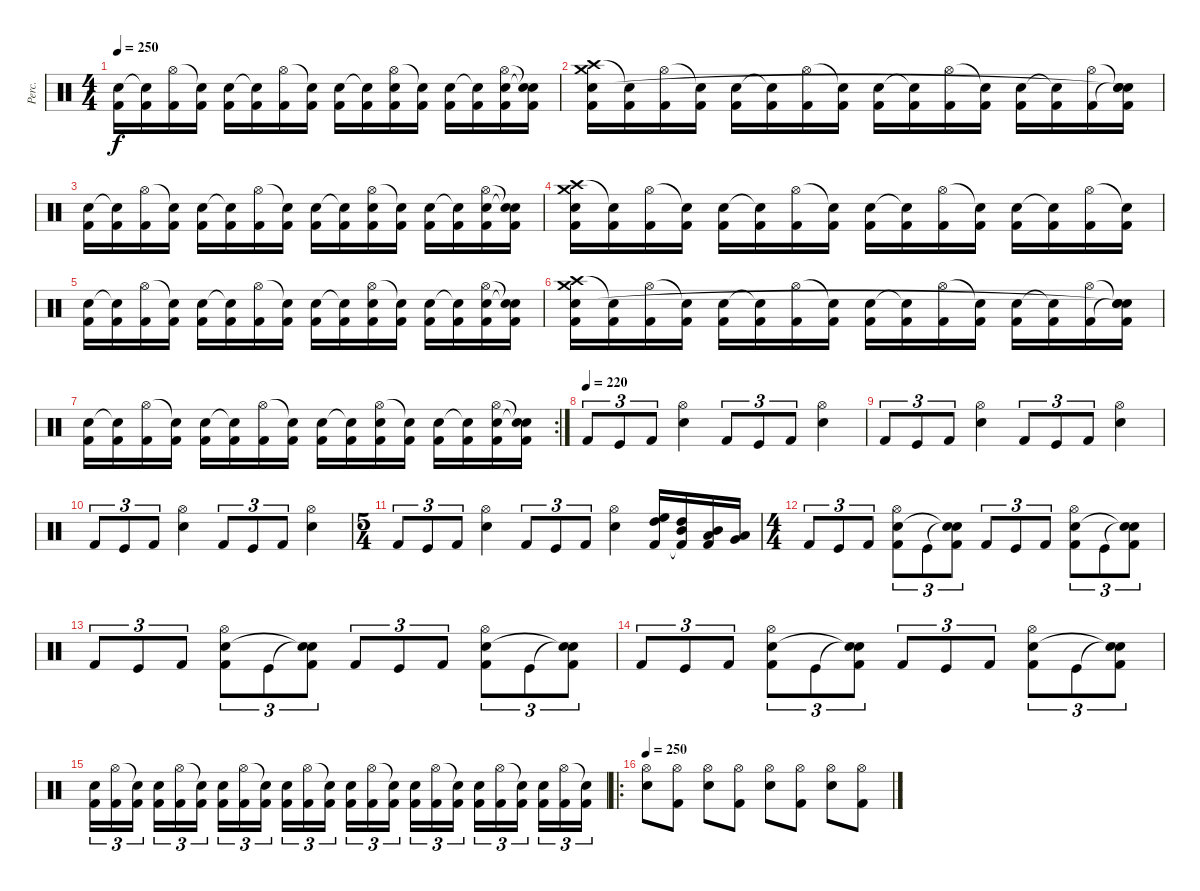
\track ("Perc." "Perc.") {instrument percussion}
\staff {score}
\articulation defaults
\ts (4 4)
\tempo 250
\clef neutral
\ks c
("Snare (hit) 2" "Kick (hit) 2").16{dy f} ("Snare (hit)"{t} "Kick (hit) 2").16 ("Hi-Hat (open)" "Kick (hit) 2").16 ("Snare (hit)"{t} "Kick (hit) 2").16 ("Snare (hit) 2" "Kick (hit) 2").16 ("Snare (hit)"{t} "Kick (hit) 2").16 ("Hi-Hat (open)" "Kick (hit) 2").16 ("Snare (hit)"{t} "Kick (hit) 2").16 ("Snare (hit) 2" "Kick (hit) 2").16 ("Snare (hit)"{t} "Kick (hit) 2").16 ("Hi-Hat (open)" "Snare (hit) 2" "Kick (hit) 2").16 ("Snare (hit)"{t} "Kick (hit) 2").16 ("Snare (hit) 2" "Kick (hit) 2").16 ("Snare (hit)"{t} "Kick (hit) 2").16 ("Hi-Hat (open)" "Snare (hit) 2" "Kick (hit) 2").16 ("Snare (hit)"{t} "Snare (hit)"{t} "Kick (hit) 2").16 |
("Crash high (hit)" "Crash medium (hit)" "Snare (hit) 2" "Kick (hit) 2").16 ("Snare (hit)"{t} "Kick (hit) 2").16 ("Hi-Hat (open)" "Kick (hit) 2").16 ("Snare (hit)"{t} "Kick (hit) 2").16 ("Snare (hit) 2" "Kick (hit) 2").16 ("Snare (hit)"{t} "Kick (hit) 2").16 ("Hi-Hat (open)" "Kick (hit) 2").16 ("Snare (hit)"{t} "Kick (hit) 2").16 ("Snare (hit) 2" "Kick (hit) 2").16 ("Snare (hit)"{t} "Kick (hit) 2").16 ("Hi-Hat (open)" "Kick (hit) 2").16 ("Snare (hit)"{t} "Kick (hit) 2").16 ("Snare (hit) 2" "Kick (hit) 2").16 ("Snare (hit)"{t} "Kick (hit) 2").16 ("Hi-Hat (open)" "Kick (hit) 2").16 ("Snare (hit)"{t} "Snare (hit)"{t} "Snare (hit)"{t} "Kick (hit) 2").16 |
("Snare (hit) 2" "Kick (hit) 2").16 ("Snare (hit)"{t} "Kick (hit) 2").16 ("Hi-Hat (open)" "Kick (hit) 2").16 ("Snare (hit)"{t} "Kick (hit) 2").16 ("Snare (hit) 2" "Kick (hit) 2").16 ("Snare (hit)"{t} "Kick (hit) 2").16 ("Hi-Hat (open)" "Kick (hit) 2").16 ("Snare (hit)"{t} "Kick (hit) 2").16 ("Snare (hit) 2" "Kick (hit) 2").16 ("Snare (hit)"{t} "Kick (hit) 2").16 ("Hi-Hat (open)" "Snare (hit) 2" "Kick (hit) 2").16 ("Snare (hit)"{t} "Kick (hit) 2").16 ("Snare (hit) 2" "Kick (hit) 2").16 ("Snare (hit)"{t} "Kick (hit) 2").16 ("Hi-Hat (open)" "Snare (hit) 2" "Kick (hit) 2").16 ("Snare (hit)"{t} "Snare (hit)"{t} "Kick (hit) 2").16 |
("Crash high (hit)" "Crash medium (hit)" "Snare (hit) 2" "Kick (hit) 2").16 ("Snare (hit)"{t} "Kick (hit) 2").16 ("Hi-Hat (open)" "Kick (hit) 2").16 ("Snare (hit)"{t} "Kick (hit) 2").16 ("Snare (hit) 2" "Kick (hit) 2").16 ("Snare (hit)"{t} "Kick (hit) 2").16 ("Hi-Hat (open)" "Kick (hit) 2").16 ("Snare (hit)"{t} "Kick (hit) 2").16 ("Snare (hit) 2" "Kick (hit) 2").16 ("Snare (hit)"{t} "Kick (hit) 2").16 ("Hi-Hat (open)" "Kick (hit) 2").16 ("Snare (hit)"{t} "Kick (hit) 2").16 ("Snare (hit) 2" "Kick (hit) 2").16 ("Snare (hit)"{t} "Kick (hit) 2").16 ("Hi-Hat (open)" "Kick (hit) 2").16 ("Snare (hit)"{t} "Kick (hit) 2").16 |
("Snare (hit) 2" "Kick (hit) 2").16 ("Snare (hit)"{t} "Kick (hit) 2").16 ("Hi-Hat (open)" "Kick (hit) 2").16 ("Snare (hit)"{t} "Kick (hit) 2").16 ("Snare (hit) 2" "Kick (hit) 2").16 ("Snare (hit)"{t} "Kick (hit) 2").16 ("Hi-Hat (open)" "Kick (hit) 2").16 ("Snare (hit)"{t} "Kick (hit) 2").16 ("Snare (hit) 2" "Kick (hit) 2").16 ("Snare (hit)"{t} "Kick (hit) 2").16 ("Hi-Hat (open)" "Snare (hit) 2" "Kick (hit) 2").16 ("Snare (hit)"{t} "Kick (hit) 2").16 ("Snare (hit) 2" "Kick (hit) 2").16 ("Snare (hit)"{t} "Kick (hit) 2").16 ("Hi-Hat (open)" "Snare (hit) 2" "Kick (hit) 2").16 ("Snare (hit)"{t} "Snare (hit)"{t} "Kick (hit) 2").16 |
("Crash high (hit)" "Crash medium (hit)" "Snare (hit) 2" "Kick (hit) 2").16 ("Snare (hit)"{t} "Kick (hit) 2").16 ("Hi-Hat (open)" "Kick (hit) 2").16 ("Snare (hit)"{t} "Kick (hit) 2").16 ("Snare (hit) 2" "Kick (hit) 2").16 ("Snare (hit)"{t} "Kick (hit) 2").16 ("Hi-Hat (open)" "Kick (hit) 2").16 ("Snare (hit)"{t} "Kick (hit) 2").16 ("Snare (hit) 2" "Kick (hit) 2").16 ("Snare (hit)"{t} "Kick (hit) 2").16 ("Hi-Hat (open)" "Kick (hit) 2").16 ("Snare (hit)"{t} "Kick (hit) 2").16 ("Snare (hit) 2" "Kick (hit) 2").16 ("Snare (hit)"{t} "Kick (hit) 2").16 ("Hi-Hat (open)" "Kick (hit) 2").16 ("Snare (hit)"{t} "Snare (hit)"{t} "Snare (hit)"{t} "Kick (hit) 2").16 |
\rc 2
("Snare (hit) 2" "Kick (hit) 2").16 ("Snare (hit)"{t} "Kick (hit) 2").16 ("Hi-Hat (open)" "Kick (hit) 2").16 ("Snare (hit)"{t} "Kick (hit) 2").16 ("Snare (hit) 2" "Kick (hit) 2").16 ("Snare (hit)"{t} "Kick (hit) 2").16 ("Hi-Hat (open)" "Kick (hit) 2").16 ("Snare (hit)"{t} "Kick (hit) 2").16 ("Snare (hit) 2" "Kick (hit) 2").16 ("Snare (hit)"{t} "Kick (hit) 2").16 ("Hi-Hat (open)" "Snare (hit) 2" "Kick (hit) 2").16 ("Snare (hit)"{t} "Kick (hit) 2").16 ("Snare (hit) 2" "Kick (hit) 2").16 ("Snare (hit)"{t} "Kick (hit) 2").16 ("Hi-Hat (open)" "Snare (hit) 2" "Kick (hit) 2").16 ("Snare (hit)"{t} "Snare (hit)"{t} "Kick (hit) 2").16 |
\tempo (220)
"Kick (hit) 2".8{tu (3 2)} "Kick (hit)".8{tu (3 2)} "Kick (hit) 2".8{tu (3 2)} ("Hi-Hat (open)" "Snare (hit) 2").4 "Kick (hit) 2".8{tu (3 2)} "Kick (hit)".8{tu (3 2)} "Kick (hit) 2".8{tu (3 2)} ("Hi-Hat (open)" "Snare (hit) 2").4 |
"Kick (hit) 2".8{tu (3 2)} "Kick (hit)".8{tu (3 2)} "Kick (hit) 2".8{tu (3 2)} ("Hi-Hat (open)" "Snare (hit) 2").4 "Kick (hit) 2".8{tu (3 2)} "Kick (hit)".8{tu (3 2)} "Kick (hit) 2".8{tu (3 2)} ("Hi-Hat (open)" "Snare (hit) 2").4 |
"Kick (hit) 2".8{tu (3 2)} "Kick (hit)".8{tu (3 2)} "Kick (hit) 2".8{tu (3 2)} ("Hi-Hat (open)" "Snare (hit) 2").4 "Kick (hit) 2".8{tu (3 2)} "Kick (hit)".8{tu (3 2)} "Kick (hit) 2".8{tu (3 2)} ("Hi-Hat (open)" "Snare (hit) 2").4 |
\ts (5 4)
"Kick (hit) 2".8{tu (3 2)} "Kick (hit)".8{tu (3 2)} "Kick (hit) 2".8{tu (3 2)} ("Hi-Hat (open)" "Snare (hit) 2").4 "Kick (hit) 2".8{tu (3 2)} "Kick (hit)".8{tu (3 2)} "Kick (hit) 2".8{tu (3 2)} ("Hi-Hat (open)" "Snare (hit) 2").4 ("High Floor Tom (hit)" "High Tom (hit)" "Kick (hit) 2").16 ("High Tom (hit)" "Mid Tom (hit)" "Kick (hit) 2"{t}).16 ("Mid Tom (hit)" "Low Tom (hit)" "Kick (hit) 2").16 ("Low Tom (hit)" "Very Low Tom (hit)").16 |
\ts (4 4)
"Kick (hit) 2".8{tu (3 2)} "Kick (hit)".8{tu (3 2)} "Kick (hit) 2".8{tu (3 2)} ("Hi-Hat (open)" "Snare (hit) 2" "Kick (hit) 2").8{tu (3 2)} "Kick (hit)".8{tu (3 2)} ("Snare (hit)"{t} "Snare (hit)"{t} "Kick (hit) 2").8{tu (3 2)} "Kick (hit) 2".8{tu (3 2)} "Kick (hit)".8{tu (3 2)} "Kick (hit) 2".8{tu (3 2)} ("Hi-Hat (open)" "Snare (hit) 2" "Kick (hit) 2").8{tu (3 2)} "Kick (hit)".8{tu (3 2)} ("Snare (hit)"{t} "Snare (hit)"{t} "Kick (hit) 2").8{tu (3 2)} |
"Kick (hit) 2".8{tu (3 2)} "Kick (hit)".8{tu (3 2)} "Kick (hit) 2".8{tu (3 2)} ("Hi-Hat (open)" "Snare (hit) 2" "Kick (hit) 2").8{tu (3 2)} "Kick (hit)".8{tu (3 2)} ("Snare (hit)"{t} "Snare (hit)"{t} "Kick (hit) 2").8{tu (3 2)} "Kick (hit) 2".8{tu (3 2)} "Kick (hit)".8{tu (3 2)} "Kick (hit) 2".8{tu (3 2)} ("Hi-Hat (open)" "Snare (hit) 2" "Kick (hit) 2").8{tu (3 2)} "Kick (hit)".8{tu (3 2)} ("Snare (hit)"{t} "Snare (hit)"{t} "Kick (hit) 2").8{tu (3 2)} |
"Kick (hit) 2".8{tu (3 2)} "Kick (hit)".8{tu (3 2)} "Kick (hit) 2".8{tu (3 2)} ("Hi-Hat (open)" "Snare (hit) 2" "Kick (hit) 2").8{tu (3 2)} "Kick (hit)".8{tu (3 2)} ("Snare (hit)"{t} "Snare (hit)"{t} "Kick (hit) 2").8{tu (3 2)} "Kick (hit) 2".8{tu (3 2)} "Kick (hit)".8{tu (3 2)} "Kick (hit) 2".8{tu (3 2)} ("Hi-Hat (open)" "Snare (hit) 2" "Kick (hit) 2").8{tu (3 2)} "Kick (hit)".8{tu (3 2)} ("Snare (hit)"{t} "Snare (hit)"{t} "Kick (hit) 2").8{tu (3 2)} |
("Snare (hit) 2" "Kick (hit) 2").16{tu (3 2)} ("Hi-Hat (open)" "Kick (hit) 2").16{tu (3 2)} ("Snare (hit)"{t} "Kick (hit) 2").16{tu (3 2)} ("Snare (hit) 2" "Kick (hit) 2").16{tu (3 2)} ("Hi-Hat (open)" "Kick (hit) 2").16{tu (3 2)} ("Snare (hit)"{t} "Kick (hit) 2").16{tu (3 2)} ("Snare (hit) 2" "Kick (hit) 2").16{tu (3 2)} ("Hi-Hat (open)" "Kick (hit) 2").16{tu (3 2)} ("Snare (hit)"{t} "Kick (hit) 2").16{tu (3 2)} ("Snare (hit) 2" "Kick (hit) 2").16{tu (3 2)} ("Hi-Hat (open)" "Kick (hit) 2").16{tu (3 2)} ("Snare (hit)"{t} "Kick (hit) 2").16{tu (3 2)} ("Snare (hit) 2" "Kick (hit) 2").16{tu (3 2)} ("Hi-Hat (open)" "Kick (hit) 2").16{tu (3 2)} ("Snare (hit)"{t} "Kick (hit) 2").16{tu (3 2)} ("Snare (hit) 2" "Kick (hit) 2").16{tu (3 2)} ("Hi-Hat (open)" "Kick (hit) 2").16{tu (3 2)} ("Snare (hit)"{t} "Kick (hit) 2").16{tu (3 2)} ("Snare (hit) 2" "Kick (hit) 2").16{tu (3 2)} ("Hi-Hat (open)" "Kick (hit) 2").16{tu (3 2)} ("Snare (hit)"{t} "Kick (hit) 2").16{tu (3 2)} ("Snare (hit) 2" "Kick (hit) 2").16{tu (3 2)} ("Hi-Hat (open)" "Kick (hit) 2").16{tu (3 2)} ("Snare (hit)"{t} "Kick (hit) 2").16{tu (3 2)} |
\ro
\tempo 250
("Hi-Hat (open)" "Snare (hit) 2").8 ("Hi-Hat (open)" "Kick (hit) 2").8 ("Hi-Hat (open)" "Snare (hit) 2").8 ("Hi-Hat (open)" "Kick (hit) 2").8 ("Hi-Hat (open)" "Snare (hit) 2").8 ("Hi-Hat (open)" "Kick (hit) 2").8 ("Hi-Hat (open)" "Snare (hit) 2").8 ("Hi-Hat (open)" "Kick (hit) 2").8
